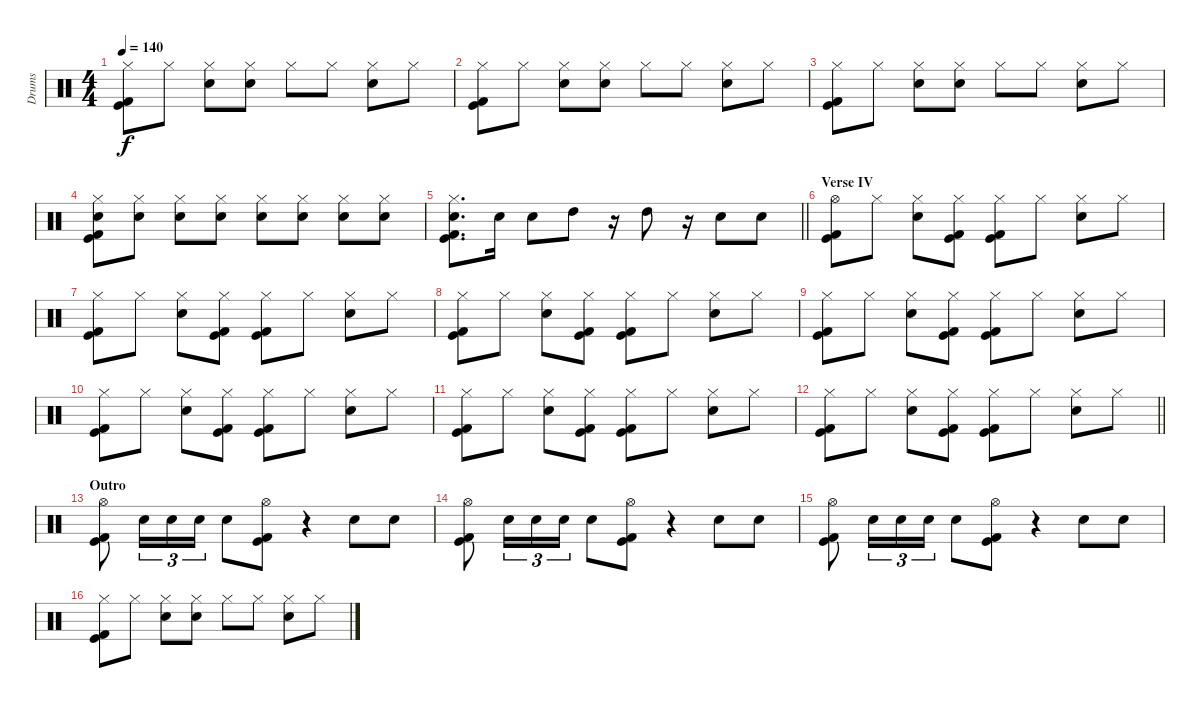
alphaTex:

\track ("Drums" "Drums") {instrument percussion}
\staff {score}
\articulation defaults
\ts (4 4)
\tempo 140
\clef neutral
\ks c
("Hi-Hat (closed)" "Kick (hit) 2" "Kick (hit)").8{dy f} "Hi-Hat (closed)".8 ("Hi-Hat (closed)" "Snare (hit) 2").8 ("Hi-Hat (closed)" "Snare (hit) 2").8 "Hi-Hat (closed)".8 "Hi-Hat (closed)".8 ("Hi-Hat (closed)" "Snare (hit) 2").8 "Hi-Hat (closed)".8 |
("Hi-Hat (closed)" "Kick (hit) 2" "Kick (hit)").8 "Hi-Hat (closed)".8 ("Hi-Hat (closed)" "Snare (hit) 2").8 ("Hi-Hat (closed)" "Snare (hit) 2").8 "Hi-Hat (closed)".8 "Hi-Hat (closed)".8 ("Hi-Hat (closed)" "Snare (hit) 2").8 "Hi-Hat (closed)".8 |
("Hi-Hat (closed)" "Kick (hit) 2" "Kick (hit)").8 "Hi-Hat (closed)".8 ("Hi-Hat (closed)" "Snare (hit) 2").8 ("Hi-Hat (closed)" "Snare (hit) 2").8 "Hi-Hat (closed)".8 "Hi-Hat (closed)".8 ("Hi-Hat (closed)" "Snare (hit) 2").8 "Hi-Hat (closed)".8 |
("Hi-Hat (closed)" "Snare (hit) 2" "Kick (hit) 2" "Kick (hit)").8 ("Hi-Hat (closed)" "Snare (hit) 2").8 ("Hi-Hat (closed)" "Snare (hit) 2").8 ("Hi-Hat (closed)" "Snare (hit) 2").8 ("Hi-Hat (closed)" "Snare (hit) 2").8 ("Hi-Hat (closed)" "Snare (hit) 2").8 ("Hi-Hat (closed)" "Snare (hit) 2").8 ("Hi-Hat (closed)" "Snare (hit) 2").8 |
\barLineRight lightlight
("Hi-Hat (closed)" "Snare (hit) 2" "Kick (hit) 2" "Kick (hit)").8{d} "Snare (hit) 2".16 "Snare (hit) 2".8 "High Tom (hit)".8 r.16 "High Tom (hit)".8 r.16 "Snare (hit) 2".8 "Snare (hit) 2".8 |
\section ("" "Verse IV")
("Hi-Hat (open)" "Kick (hit) 2" "Kick (hit)").8 "Hi-Hat (closed)".8 ("Hi-Hat (closed)" "Snare (hit) 2").8 ("Hi-Hat (closed)" "Kick (hit) 2" "Kick (hit)").8 ("Hi-Hat (closed)" "Kick (hit) 2" "Kick (hit)").8 "Hi-Hat (closed)".8 ("Hi-Hat (closed)" "Snare (hit) 2").8 "Hi-Hat (closed)".8 |
("Hi-Hat (closed)" "Kick (hit) 2" "Kick (hit)").8 "Hi-Hat (closed)".8 ("Hi-Hat (closed)" "Snare (hit) 2").8 ("Hi-Hat (closed)" "Kick (hit) 2" "Kick (hit)").8 ("Hi-Hat (closed)" "Kick (hit) 2" "Kick (hit)").8 "Hi-Hat (closed)".8 ("Hi-Hat (closed)" "Snare (hit) 2").8 "Hi-Hat (closed)".8 |
("Hi-Hat (closed)" "Kick (hit) 2" "Kick (hit)").8 "Hi-Hat (closed)".8 ("Hi-Hat (closed)" "Snare (hit) 2").8 ("Hi-Hat (closed)" "Kick (hit) 2" "Kick (hit)").8 ("Hi-Hat (closed)" "Kick (hit) 2" "Kick (hit)").8 "Hi-Hat (closed)".8 ("Hi-Hat (closed)" "Snare (hit) 2").8 "Hi-Hat (closed)".8 |
("Hi-Hat (closed)" "Kick (hit) 2" "Kick (hit)").8 "Hi-Hat (closed)".8 ("Hi-Hat (closed)" "Snare (hit) 2").8 ("Hi-Hat (closed)" "Kick (hit) 2" "Kick (hit)").8 ("Hi-Hat (closed)" "Kick (hit) 2" "Kick (hit)").8 "Hi-Hat (closed)".8 ("Hi-Hat (closed)" "Snare (hit) 2").8 "Hi-Hat (closed)".8 |
("Hi-Hat (closed)" "Kick (hit) 2" "Kick (hit)").8 "Hi-Hat (closed)".8 ("Hi-Hat (closed)" "Snare (hit) 2").8 ("Hi-Hat (closed)" "Kick (hit) 2" "Kick (hit)").8 ("Hi-Hat (closed)" "Kick (hit) 2" "Kick (hit)").8 "Hi-Hat (closed)".8 ("Hi-Hat (closed)" "Snare (hit) 2").8 "Hi-Hat (closed)".8 |
("Hi-Hat (closed)" "Kick (hit) 2" "Kick (hit)").8 "Hi-Hat (closed)".8 ("Hi-Hat (closed)" "Snare (hit) 2").8 ("Hi-Hat (closed)" "Kick (hit) 2" "Kick (hit)").8 ("Hi-Hat (closed)" "Kick (hit) 2" "Kick (hit)").8 "Hi-Hat (closed)".8 ("Hi-Hat (closed)" "Snare (hit) 2").8 "Hi-Hat (closed)".8 |
\barLineRight lightlight
("Hi-Hat (closed)" "Kick (hit) 2" "Kick (hit)").8 "Hi-Hat (closed)".8 ("Hi-Hat (closed)" "Snare (hit) 2").8 ("Hi-Hat (closed)" "Kick (hit) 2" "Kick (hit)").8 ("Hi-Hat (closed)" "Kick (hit) 2" "Kick (hit)").8 "Hi-Hat (closed)".8 ("Hi-Hat (closed)" "Snare (hit) 2").8 "Hi-Hat (closed)".8 |
\section ("" "Outro")
("Hi-Hat (open)" "Kick (hit) 2" "Kick (hit)").8 "Snare (hit) 2".16{tu (3 2)} "Snare (hit) 2".16{tu (3 2)} "Snare (hit) 2".16{tu (3 2)} "Snare (hit) 2".8 ("Hi-Hat (open)" "Kick (hit) 2" "Kick (hit)").8 r.4 "Snare (hit) 2".8 "Snare (hit) 2".8 |
("Hi-Hat (open)" "Kick (hit) 2" "Kick (hit)").8 "Snare (hit) 2".16{tu (3 2)} "Snare (hit) 2".16{tu (3 2)} "Snare (hit) 2".16{tu (3 2)} "Snare (hit) 2".8 ("Hi-Hat (open)" "Kick (hit) 2" "Kick (hit)").8 r.4 "Snare (hit) 2".8 "Snare (hit) 2".8 |
("Hi-Hat (open)" "Kick (hit) 2" "Kick (hit)").8 "Snare (hit) 2".16{tu (3 2)} "Snare (hit) 2".16{tu (3 2)} "Snare (hit) 2".16{tu (3 2)} "Snare (hit) 2".8 ("Hi-Hat (open)" "Kick (hit) 2" "Kick (hit)").8 r.4 "Snare (hit) 2".8 "Snare (hit) 2".8 |
("Hi-Hat (closed)" "Kick (hit) 2" "Kick (hit)").8 "Hi-Hat (closed)".8 ("Hi-Hat (closed)" "Snare (hit) 2").8 ("Hi-Hat (closed)" "Snare (hit) 2").8 "Hi-Hat (closed)".8 "Hi-Hat (closed)".8 ("Hi-Hat (closed)" "Snare (hit) 2").8 "Hi-Hat (closed)".8
